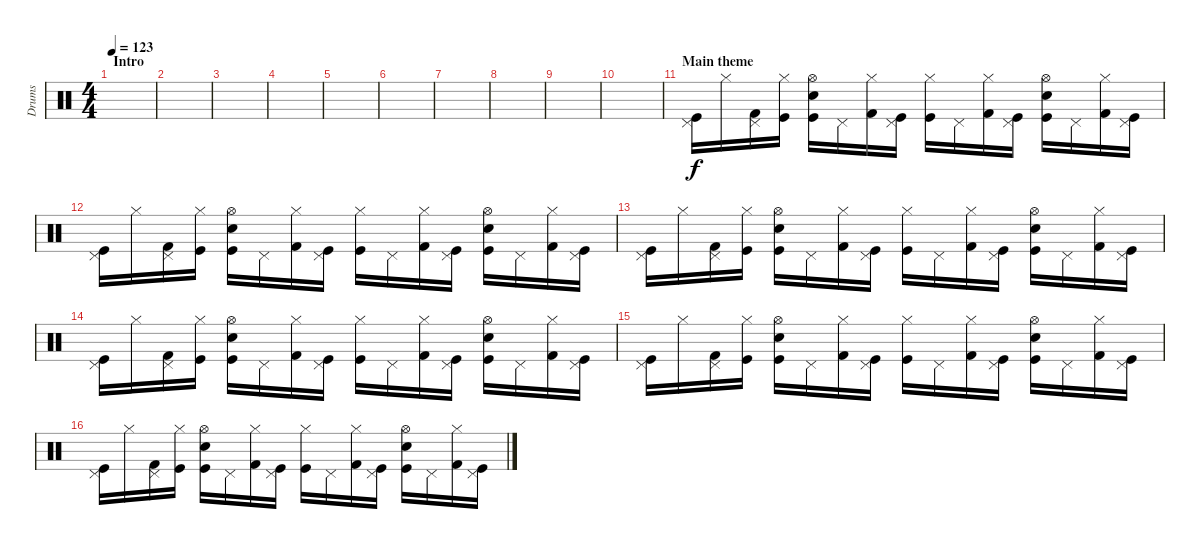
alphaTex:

\track ("Drums" "Drums") {instrument percussion}
\staff {score}
\articulation defaults
\ts (4 4)
\section ("" "Intro")
\tempo 123
\clef neutral
\ks c
|
|
|
|
|
|
|
|
|
|
\section ("" "Main theme")
("Pedal Hi-Hat (hit)" "Kick (hit)").16 "Hi-Hat (closed)".16 ("Pedal Hi-Hat (hit)" "Kick (hit) 2").16 ("Hi-Hat (closed)" "Kick (hit)").16 ("Hi-Hat (open)" "Snare (hit) 2" "Kick (hit)").16 "Pedal Hi-Hat (hit)".16 ("Hi-Hat (closed)" "Kick (hit) 2").16 ("Pedal Hi-Hat (hit)" "Kick (hit)").16 ("Hi-Hat (closed)" "Kick (hit)").16 "Pedal Hi-Hat (hit)".16 ("Hi-Hat (closed)" "Kick (hit) 2").16 ("Pedal Hi-Hat (hit)" "Kick (hit)").16 ("Hi-Hat (open)" "Snare (hit) 2" "Kick (hit)").16 "Pedal Hi-Hat (hit)".16 ("Hi-Hat (closed)" "Kick (hit) 2").16 ("Pedal Hi-Hat (hit)" "Kick (hit)").16 |
("Pedal Hi-Hat (hit)" "Kick (hit)").16 "Hi-Hat (closed)".16 ("Pedal Hi-Hat (hit)" "Kick (hit) 2").16 ("Hi-Hat (closed)" "Kick (hit)").16 ("Hi-Hat (open)" "Snare (hit) 2" "Kick (hit)").16 "Pedal Hi-Hat (hit)".16 ("Hi-Hat (closed)" "Kick (hit) 2").16 ("Pedal Hi-Hat (hit)" "Kick (hit)").16 ("Hi-Hat (closed)" "Kick (hit)").16 "Pedal Hi-Hat (hit)".16 ("Hi-Hat (closed)" "Kick (hit) 2").16 ("Pedal Hi-Hat (hit)" "Kick (hit)").16 ("Hi-Hat (open)" "Snare (hit) 2" "Kick (hit)").16 "Pedal Hi-Hat (hit)".16 ("Hi-Hat (closed)" "Kick (hit) 2").16 ("Pedal Hi-Hat (hit)" "Kick (hit)").16 |
("Pedal Hi-Hat (hit)" "Kick (hit)").16 "Hi-Hat (closed)".16 ("Pedal Hi-Hat (hit)" "Kick (hit) 2").16 ("Hi-Hat (closed)" "Kick (hit)").16 ("Hi-Hat (open)" "Snare (hit) 2" "Kick (hit)").16 "Pedal Hi-Hat (hit)".16 ("Hi-Hat (closed)" "Kick (hit) 2").16 ("Pedal Hi-Hat (hit)" "Kick (hit)").16 ("Hi-Hat (closed)" "Kick (hit)").16 "Pedal Hi-Hat (hit)".16 ("Hi-Hat (closed)" "Kick (hit) 2").16 ("Pedal Hi-Hat (hit)" "Kick (hit)").16 ("Hi-Hat (open)" "Snare (hit) 2" "Kick (hit)").16 "Pedal Hi-Hat (hit)".16 ("Hi-Hat (closed)" "Kick (hit) 2").16 ("Pedal Hi-Hat (hit)" "Kick (hit)").16 |
("Pedal Hi-Hat (hit)" "Kick (hit)").16 "Hi-Hat (closed)".16 ("Pedal Hi-Hat (hit)" "Kick (hit) 2").16 ("Hi-Hat (closed)" "Kick (hit)").16 ("Hi-Hat (open)" "Snare (hit) 2" "Kick (hit)").16 "Pedal Hi-Hat (hit)".16 ("Hi-Hat (closed)" "Kick (hit) 2").16 ("Pedal Hi-Hat (hit)" "Kick (hit)").16 ("Hi-Hat (closed)" "Kick (hit)").16 "Pedal Hi-Hat (hit)".16 ("Hi-Hat (closed)" "Kick (hit) 2").16 ("Pedal Hi-Hat (hit)" "Kick (hit)").16 ("Hi-Hat (open)" "Snare (hit) 2" "Kick (hit)").16 "Pedal Hi-Hat (hit)".16 ("Hi-Hat (closed)" "Kick (hit) 2").16 ("Pedal Hi-Hat (hit)" "Kick (hit)").16 |
("Pedal Hi-Hat (hit)" "Kick (hit)").16 "Hi-Hat (closed)".16 ("Pedal Hi-Hat (hit)" "Kick (hit) 2").16 ("Hi-Hat (closed)" "Kick (hit)").16 ("Hi-Hat (open)" "Snare (hit) 2" "Kick (hit)").16 "Pedal Hi-Hat (hit)".16 ("Hi-Hat (closed)" "Kick (hit) 2").16 ("Pedal Hi-Hat (hit)" "Kick (hit)").16 ("Hi-Hat (closed)" "Kick (hit)").16 "Pedal Hi-Hat (hit)".16 ("Hi-Hat (closed)" "Kick (hit) 2").16 ("Pedal Hi-Hat (hit)" "Kick (hit)").16 ("Hi-Hat (open)" "Snare (hit) 2" "Kick (hit)").16 "Pedal Hi-Hat (hit)".16 ("Hi-Hat (closed)" "Kick (hit) 2").16 ("Pedal Hi-Hat (hit)" "Kick (hit)").16 |
("Pedal Hi-Hat (hit)" "Kick (hit)").16 "Hi-Hat (closed)".16 ("Pedal Hi-Hat (hit)" "Kick (hit) 2").16 ("Hi-Hat (closed)" "Kick (hit)").16 ("Hi-Hat (open)" "Snare (hit) 2" "Kick (hit)").16 "Pedal Hi-Hat (hit)".16 ("Hi-Hat (closed)" "Kick (hit) 2").16 ("Pedal Hi-Hat (hit)" "Kick (hit)").16 ("Hi-Hat (closed)" "Kick (hit)").16 "Pedal Hi-Hat (hit)".16 ("Hi-Hat (closed)" "Kick (hit) 2").16 ("Pedal Hi-Hat (hit)" "Kick (hit)").16 ("Hi-Hat (open)" "Snare (hit) 2" "Kick (hit)").16 "Pedal Hi-Hat (hit)".16 ("Hi-Hat (closed)" "Kick (hit) 2").16 ("Pedal Hi-Hat (hit)" "Kick (hit)").16
